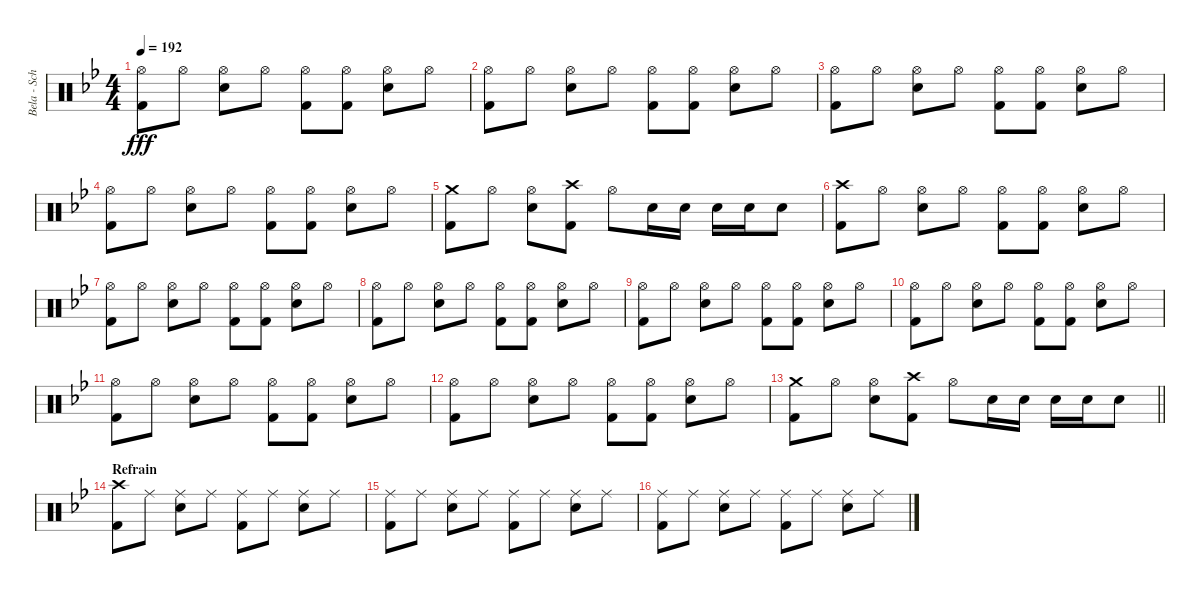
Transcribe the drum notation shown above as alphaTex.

\track ("Bela - Schlagzeug" "Bela - Sch") {instrument percussion}
\staff {score}
\articulation defaults
\ts (4 4)
\tempo 192
\clef neutral
\ks bb
("Hi-Hat (open)" "Kick (hit) 2").8{dy fff} "Hi-Hat (open)".8 ("Hi-Hat (open)" "Snare (hit) 2").8 "Hi-Hat (open)".8 ("Hi-Hat (open)" "Kick (hit) 2").8 ("Hi-Hat (open)" "Kick (hit) 2").8 ("Hi-Hat (open)" "Snare (hit) 2").8 "Hi-Hat (open)".8 |
("Hi-Hat (open)" "Kick (hit) 2").8 "Hi-Hat (open)".8 ("Hi-Hat (open)" "Snare (hit) 2").8 "Hi-Hat (open)".8 ("Hi-Hat (open)" "Kick (hit) 2").8 ("Hi-Hat (open)" "Kick (hit) 2").8 ("Hi-Hat (open)" "Snare (hit) 2").8 "Hi-Hat (open)".8 |
("Hi-Hat (open)" "Kick (hit) 2").8 "Hi-Hat (open)".8 ("Hi-Hat (open)" "Snare (hit) 2").8 "Hi-Hat (open)".8 ("Hi-Hat (open)" "Kick (hit) 2").8 ("Hi-Hat (open)" "Kick (hit) 2").8 ("Hi-Hat (open)" "Snare (hit) 2").8 "Hi-Hat (open)".8 |
("Hi-Hat (open)" "Kick (hit) 2").8 "Hi-Hat (open)".8 ("Hi-Hat (open)" "Snare (hit) 2").8 "Hi-Hat (open)".8 ("Hi-Hat (open)" "Kick (hit) 2").8 ("Hi-Hat (open)" "Kick (hit) 2").8 ("Hi-Hat (open)" "Snare (hit) 2").8 "Hi-Hat (open)".8 |
("Crash medium (hit)" "Kick (hit) 2").8 "Hi-Hat (open)".8 ("Hi-Hat (open)" "Snare (hit) 2").8 ("Crash high (hit)" "Kick (hit) 2").8 "Hi-Hat (open)".8 "Snare (hit) 2".16 "Snare (hit) 2".16 "Snare (hit) 2".16 "Snare (hit) 2".16 "Snare (hit) 2".8 |
("Crash high (hit)" "Kick (hit) 2").8 "Hi-Hat (open)".8 ("Hi-Hat (open)" "Snare (hit) 2").8 "Hi-Hat (open)".8 ("Hi-Hat (open)" "Kick (hit) 2").8 ("Hi-Hat (open)" "Kick (hit) 2").8 ("Hi-Hat (open)" "Snare (hit) 2").8 "Hi-Hat (open)".8 |
("Hi-Hat (open)" "Kick (hit) 2").8 "Hi-Hat (open)".8 ("Hi-Hat (open)" "Snare (hit) 2").8 "Hi-Hat (open)".8 ("Hi-Hat (open)" "Kick (hit) 2").8 ("Hi-Hat (open)" "Kick (hit) 2").8 ("Hi-Hat (open)" "Snare (hit) 2").8 "Hi-Hat (open)".8 |
("Hi-Hat (open)" "Kick (hit) 2").8 "Hi-Hat (open)".8 ("Hi-Hat (open)" "Snare (hit) 2").8 "Hi-Hat (open)".8 ("Hi-Hat (open)" "Kick (hit) 2").8 ("Hi-Hat (open)" "Kick (hit) 2").8 ("Hi-Hat (open)" "Snare (hit) 2").8 "Hi-Hat (open)".8 |
("Hi-Hat (open)" "Kick (hit) 2").8 "Hi-Hat (open)".8 ("Hi-Hat (open)" "Snare (hit) 2").8 "Hi-Hat (open)".8 ("Hi-Hat (open)" "Kick (hit) 2").8 ("Hi-Hat (open)" "Kick (hit) 2").8 ("Hi-Hat (open)" "Snare (hit) 2").8 "Hi-Hat (open)".8 |
("Hi-Hat (open)" "Kick (hit) 2").8 "Hi-Hat (open)".8 ("Hi-Hat (open)" "Snare (hit) 2").8 "Hi-Hat (open)".8 ("Hi-Hat (open)" "Kick (hit) 2").8 ("Hi-Hat (open)" "Kick (hit) 2").8 ("Hi-Hat (open)" "Snare (hit) 2").8 "Hi-Hat (open)".8 |
("Hi-Hat (open)" "Kick (hit) 2").8 "Hi-Hat (open)".8 ("Hi-Hat (open)" "Snare (hit) 2").8 "Hi-Hat (open)".8 ("Hi-Hat (open)" "Kick (hit) 2").8 ("Hi-Hat (open)" "Kick (hit) 2").8 ("Hi-Hat (open)" "Snare (hit) 2").8 "Hi-Hat (open)".8 |
("Hi-Hat (open)" "Kick (hit) 2").8 "Hi-Hat (open)".8 ("Hi-Hat (open)" "Snare (hit) 2").8 "Hi-Hat (open)".8 ("Hi-Hat (open)" "Kick (hit) 2").8 ("Hi-Hat (open)" "Kick (hit) 2").8 ("Hi-Hat (open)" "Snare (hit) 2").8 "Hi-Hat (open)".8 |
\barLineRight lightlight
("Crash medium (hit)" "Kick (hit) 2").8 "Hi-Hat (open)".8 ("Hi-Hat (open)" "Snare (hit) 2").8 ("Crash high (hit)" "Kick (hit) 2").8 "Hi-Hat (open)".8 "Snare (hit) 2".16 "Snare (hit) 2".16 "Snare (hit) 2".16 "Snare (hit) 2".16 "Snare (hit) 2".8 |
\section ("" "Refrain")
("Crash high (hit)" "Kick (hit) 2").8 "Ride (middle)".8 ("Ride (middle)" "Snare (hit) 2").8 "Ride (middle)".8 ("Ride (middle)" "Kick (hit) 2").8 "Ride (middle)".8 ("Ride (middle)" "Snare (hit) 2").8 "Ride (middle)".8 |
("Ride (middle)" "Kick (hit) 2").8 "Ride (middle)".8 ("Ride (middle)" "Snare (hit) 2").8 "Ride (middle)".8 ("Ride (middle)" "Kick (hit) 2").8 "Ride (middle)".8 ("Ride (middle)" "Snare (hit) 2").8 "Ride (middle)".8 |
("Ride (middle)" "Kick (hit) 2").8 "Ride (middle)".8 ("Ride (middle)" "Snare (hit) 2").8 "Ride (middle)".8 ("Ride (middle)" "Kick (hit) 2").8 "Ride (middle)".8 ("Ride (middle)" "Snare (hit) 2").8 "Ride (middle)".8
